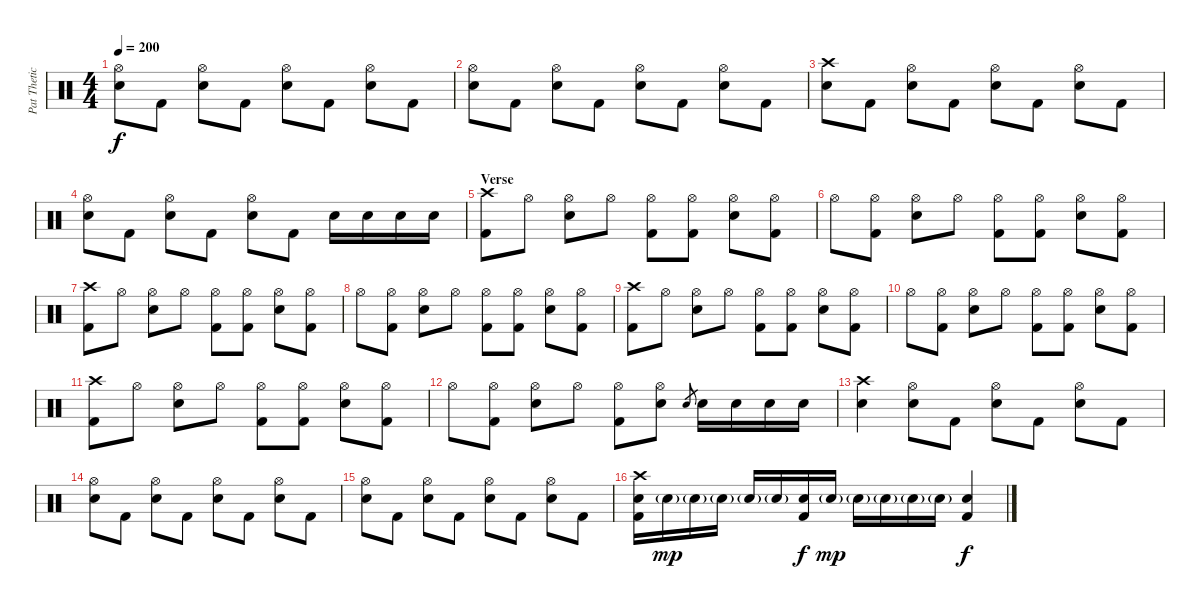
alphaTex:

\track ("Pat Thetic (Drums)" "Pat Thetic") {instrument percussion}
\staff {score}
\articulation defaults
\ts (4 4)
\tempo 200
\clef neutral
\ks c
("Hi-Hat (open)" "Electric Snare (hit)").8{dy f} "Kick (hit) 2".8 ("Hi-Hat (open)" "Electric Snare (hit)").8 "Kick (hit) 2".8 ("Hi-Hat (open)" "Electric Snare (hit)").8 "Kick (hit) 2".8 ("Hi-Hat (open)" "Electric Snare (hit)").8 "Kick (hit) 2".8 |
("Hi-Hat (open)" "Electric Snare (hit)").8 "Kick (hit) 2".8 ("Hi-Hat (open)" "Electric Snare (hit)").8 "Kick (hit) 2".8 ("Hi-Hat (open)" "Electric Snare (hit)").8 "Kick (hit) 2".8 ("Hi-Hat (open)" "Electric Snare (hit)").8 "Kick (hit) 2".8 |
("Crash high (hit)" "Electric Snare (hit)").8 "Kick (hit) 2".8 ("Hi-Hat (open)" "Electric Snare (hit)").8 "Kick (hit) 2".8 ("Hi-Hat (open)" "Electric Snare (hit)").8 "Kick (hit) 2".8 ("Hi-Hat (open)" "Electric Snare (hit)").8 "Kick (hit) 2".8 |
("Hi-Hat (open)" "Electric Snare (hit)").8 "Kick (hit) 2".8 ("Hi-Hat (open)" "Electric Snare (hit)").8 "Kick (hit) 2".8 ("Hi-Hat (open)" "Electric Snare (hit)").8 "Kick (hit) 2".8 "Electric Snare (hit)".16 "Electric Snare (hit)".16 "Electric Snare (hit)".16 "Electric Snare (hit)".16 |
\section ("" "Verse")
("Crash high (hit)" "Kick (hit) 2").8 "Hi-Hat (open)".8 ("Hi-Hat (open)" "Electric Snare (hit)").8 "Hi-Hat (open)".8 ("Hi-Hat (open)" "Kick (hit) 2").8 ("Hi-Hat (open)" "Kick (hit) 2").8 ("Hi-Hat (open)" "Electric Snare (hit)").8 ("Hi-Hat (open)" "Kick (hit) 2").8 |
"Hi-Hat (open)".8 ("Hi-Hat (open)" "Kick (hit) 2").8 ("Hi-Hat (open)" "Electric Snare (hit)").8 "Hi-Hat (open)".8 ("Hi-Hat (open)" "Kick (hit) 2").8 ("Hi-Hat (open)" "Kick (hit) 2").8 ("Hi-Hat (open)" "Electric Snare (hit)").8 ("Hi-Hat (open)" "Kick (hit) 2").8 |
("Crash high (hit)" "Kick (hit) 2").8 "Hi-Hat (open)".8 ("Hi-Hat (open)" "Electric Snare (hit)").8 "Hi-Hat (open)".8 ("Hi-Hat (open)" "Kick (hit) 2").8 ("Hi-Hat (open)" "Kick (hit) 2").8 ("Hi-Hat (open)" "Electric Snare (hit)").8 ("Hi-Hat (open)" "Kick (hit) 2").8 |
"Hi-Hat (open)".8 ("Hi-Hat (open)" "Kick (hit) 2").8 ("Hi-Hat (open)" "Electric Snare (hit)").8 "Hi-Hat (open)".8 ("Hi-Hat (open)" "Kick (hit) 2").8 ("Hi-Hat (open)" "Kick (hit) 2").8 ("Hi-Hat (open)" "Electric Snare (hit)").8 ("Hi-Hat (open)" "Kick (hit) 2").8 |
("Crash high (hit)" "Kick (hit) 2").8 "Hi-Hat (open)".8 ("Hi-Hat (open)" "Electric Snare (hit)").8 "Hi-Hat (open)".8 ("Hi-Hat (open)" "Kick (hit) 2").8 ("Hi-Hat (open)" "Kick (hit) 2").8 ("Hi-Hat (open)" "Electric Snare (hit)").8 ("Hi-Hat (open)" "Kick (hit) 2").8 |
"Hi-Hat (open)".8 ("Hi-Hat (open)" "Kick (hit) 2").8 ("Hi-Hat (open)" "Electric Snare (hit)").8 "Hi-Hat (open)".8 ("Hi-Hat (open)" "Kick (hit) 2").8 ("Hi-Hat (open)" "Kick (hit) 2").8 ("Hi-Hat (open)" "Electric Snare (hit)").8 ("Hi-Hat (open)" "Kick (hit) 2").8 |
("Crash high (hit)" "Kick (hit) 2").8 "Hi-Hat (open)".8 ("Hi-Hat (open)" "Electric Snare (hit)").8 "Hi-Hat (open)".8 ("Hi-Hat (open)" "Kick (hit) 2").8 ("Hi-Hat (open)" "Kick (hit) 2").8 ("Hi-Hat (open)" "Electric Snare (hit)").8 ("Hi-Hat (open)" "Kick (hit) 2").8 |
"Hi-Hat (open)".8 ("Hi-Hat (open)" "Kick (hit) 2").8 ("Hi-Hat (open)" "Electric Snare (hit)").8 "Hi-Hat (open)".8 ("Hi-Hat (open)" "Kick (hit) 2").8 ("Hi-Hat (open)" "Electric Snare (hit)").8 "Electric Snare (hit)".8{gr} "Electric Snare (hit)".16 "Electric Snare (hit)".16 "Electric Snare (hit)".16 "Electric Snare (hit)".16 |
("Crash high (hit)" "Electric Snare (hit)").4 ("Hi-Hat (open)" "Electric Snare (hit)").8 "Kick (hit) 2".8 ("Hi-Hat (open)" "Electric Snare (hit)").8 "Kick (hit) 2".8 ("Hi-Hat (open)" "Electric Snare (hit)").8 "Kick (hit) 2".8 |
("Hi-Hat (open)" "Electric Snare (hit)").8 "Kick (hit) 2".8 ("Hi-Hat (open)" "Electric Snare (hit)").8 "Kick (hit) 2".8 ("Hi-Hat (open)" "Electric Snare (hit)").8 "Kick (hit) 2".8 ("Hi-Hat (open)" "Electric Snare (hit)").8 "Kick (hit) 2".8 |
("Hi-Hat (open)" "Electric Snare (hit)").8 "Kick (hit) 2".8 ("Hi-Hat (open)" "Electric Snare (hit)").8 "Kick (hit) 2".8 ("Hi-Hat (open)" "Electric Snare (hit)").8 "Kick (hit) 2".8 ("Hi-Hat (open)" "Electric Snare (hit)").8 "Kick (hit) 2".8 |
("Crash high (hit)" "Electric Snare (hit)" "Kick (hit) 2").16 "Electric Snare (hit)"{g}.16{dy mp} "Electric Snare (hit)"{g}.16 "Electric Snare (hit)"{g}.16 "Electric Snare (hit)"{g}.16 "Electric Snare (hit)"{g}.16 ("Electric Snare (hit)" "Kick (hit) 2").16{dy f} "Electric Snare (hit)"{g}.16{dy mp} "Electric Snare (hit)"{g}.16 "Electric Snare (hit)"{g}.16 "Electric Snare (hit)"{g}.16 "Electric Snare (hit)"{g}.16 ("Electric Snare (hit)" "Kick (hit) 2").4{dy f}
